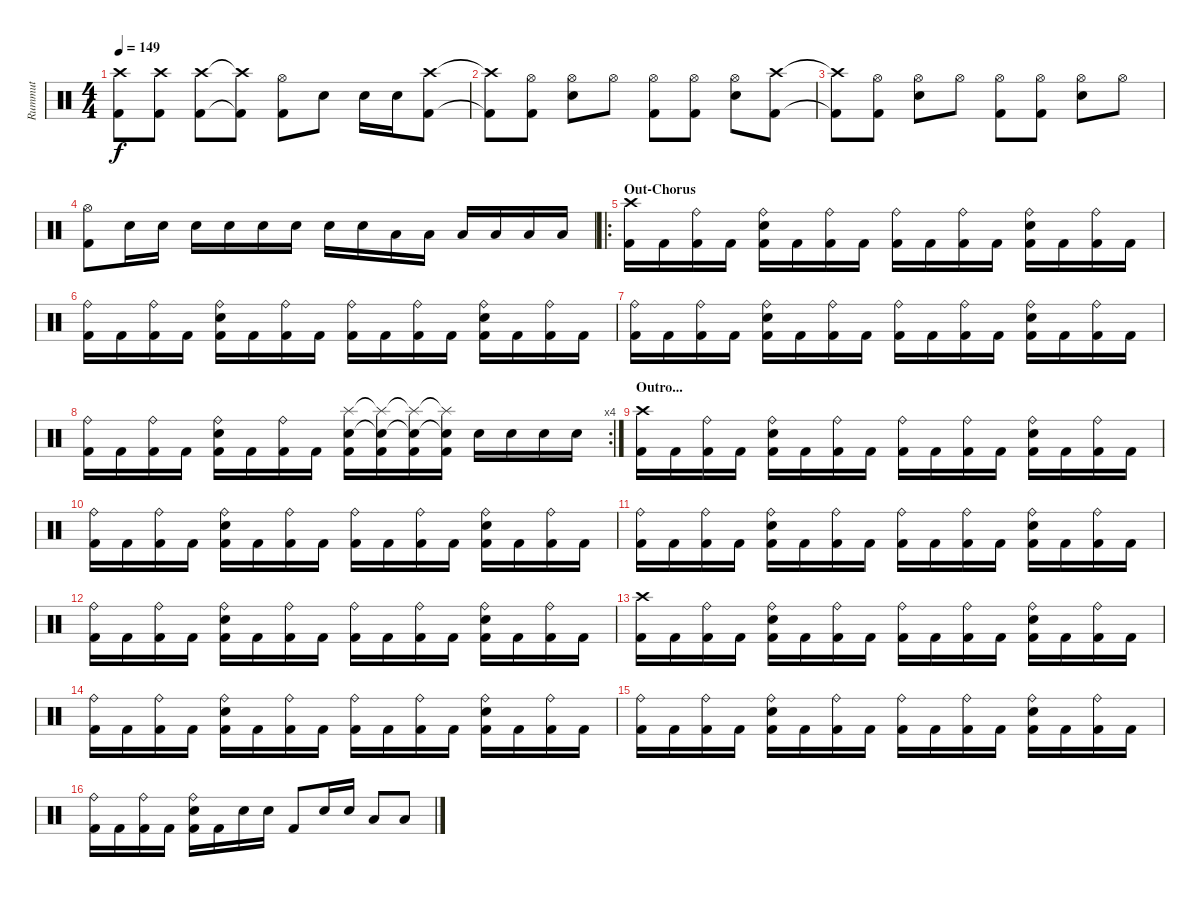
\track ("Rummut" "Rummut") {instrument percussion}
\staff {score}
\articulation defaults
\ts (4 4)
\tempo 149
\clef neutral
\ks c
("Crash high (hit)" "Kick (hit) 2").8{dy f} ("Crash high (hit)" "Kick (hit) 2").8 ("Crash high (hit)" "Kick (hit) 2").8 ("Crash high (hit)"{t} "Kick (hit) 2"{t}).8 ("Hi-Hat (open)" "Kick (hit) 2").8 "Electric Snare (hit)".8 "Electric Snare (hit)".16 "Electric Snare (hit)".16 ("Crash high (hit)" "Kick (hit) 2").8 |
("Crash high (hit)"{t} "Kick (hit) 2"{t}).8 ("Hi-Hat (open)" "Kick (hit) 2").8 ("Hi-Hat (open)" "Electric Snare (hit)").8 "Hi-Hat (open)".8 ("Hi-Hat (open)" "Kick (hit) 2").8 ("Hi-Hat (open)" "Kick (hit) 2").8 ("Hi-Hat (open)" "Electric Snare (hit)").8 ("Crash high (hit)" "Kick (hit) 2").8 |
("Crash high (hit)"{t} "Kick (hit) 2"{t}).8 ("Hi-Hat (open)" "Kick (hit) 2").8 ("Hi-Hat (open)" "Electric Snare (hit)").8 "Hi-Hat (open)".8 ("Hi-Hat (open)" "Kick (hit) 2").8 ("Hi-Hat (open)" "Kick (hit) 2").8 ("Hi-Hat (open)" "Electric Snare (hit)").8 "Hi-Hat (open)".8 |
("Hi-Hat (open)" "Kick (hit) 2").8 "Electric Snare (hit)".16 "Electric Snare (hit)".16 "Electric Snare (hit)".16 "Electric Snare (hit)".16 "Electric Snare (hit)".16 "Electric Snare (hit)".16 "Electric Snare (hit)".16 "Electric Snare (hit)".16 "Low Tom (hit)".16 "Low Tom (hit)".16 "Low Floor Tom (hit)".16 "Low Floor Tom (hit)".16 "Low Floor Tom (hit)".16 "Low Floor Tom (hit)".16 |
\ro
\section ("" "Out-Chorus")
("Crash high (hit)" "Kick (hit) 2").16 "Kick (hit) 2".16 ("Ride (bell)" "Kick (hit) 2").16 "Kick (hit) 2".16 ("Ride (bell)" "Electric Snare (hit)" "Kick (hit) 2").16 "Kick (hit) 2".16 ("Ride (bell)" "Kick (hit) 2").16 "Kick (hit) 2".16 ("Ride (bell)" "Kick (hit) 2").16 "Kick (hit) 2".16 ("Ride (bell)" "Kick (hit) 2").16 "Kick (hit) 2".16 ("Ride (bell)" "Electric Snare (hit)" "Kick (hit) 2").16 "Kick (hit) 2".16 ("Ride (bell)" "Kick (hit) 2").16 "Kick (hit) 2".16 |
("Ride (bell)" "Kick (hit) 2").16 "Kick (hit) 2".16 ("Ride (bell)" "Kick (hit) 2").16 "Kick (hit) 2".16 ("Ride (bell)" "Electric Snare (hit)" "Kick (hit) 2").16 "Kick (hit) 2".16 ("Ride (bell)" "Kick (hit) 2").16 "Kick (hit) 2".16 ("Ride (bell)" "Kick (hit) 2").16 "Kick (hit) 2".16 ("Ride (bell)" "Kick (hit) 2").16 "Kick (hit) 2".16 ("Ride (bell)" "Electric Snare (hit)" "Kick (hit) 2").16 "Kick (hit) 2".16 ("Ride (bell)" "Kick (hit) 2").16 "Kick (hit) 2".16 |
("Ride (bell)" "Kick (hit) 2").16 "Kick (hit) 2".16 ("Ride (bell)" "Kick (hit) 2").16 "Kick (hit) 2".16 ("Ride (bell)" "Electric Snare (hit)" "Kick (hit) 2").16 "Kick (hit) 2".16 ("Ride (bell)" "Kick (hit) 2").16 "Kick (hit) 2".16 ("Ride (bell)" "Kick (hit) 2").16 "Kick (hit) 2".16 ("Ride (bell)" "Kick (hit) 2").16 "Kick (hit) 2".16 ("Ride (bell)" "Electric Snare (hit)" "Kick (hit) 2").16 "Kick (hit) 2".16 ("Ride (bell)" "Kick (hit) 2").16 "Kick (hit) 2".16 |
\rc 4
("Ride (bell)" "Kick (hit) 2").16 "Kick (hit) 2".16 ("Ride (bell)" "Kick (hit) 2").16 "Kick (hit) 2".16 ("Ride (bell)" "Electric Snare (hit)" "Kick (hit) 2").16 "Kick (hit) 2".16 ("Ride (bell)" "Kick (hit) 2").16 "Kick (hit) 2".16 ("Splash (hit)" "Electric Snare (hit)" "Kick (hit) 2").16 ("Splash (hit)"{t} "Electric Snare (hit)"{t} "Kick (hit) 2").16 ("Splash (hit)"{t} "Electric Snare (hit)"{t} "Kick (hit) 2").16 ("Splash (hit)"{t} "Electric Snare (hit)"{t} "Kick (hit) 2").16 "Electric Snare (hit)".16 "Electric Snare (hit)".16 "Electric Snare (hit)".16 "Electric Snare (hit)".16 |
\section ("" "Outro...")
("Crash high (hit)" "Kick (hit) 2").16 "Kick (hit) 2".16 ("Ride (bell)" "Kick (hit) 2").16 "Kick (hit) 2".16 ("Ride (bell)" "Electric Snare (hit)" "Kick (hit) 2").16 "Kick (hit) 2".16 ("Ride (bell)" "Kick (hit) 2").16 "Kick (hit) 2".16 ("Ride (bell)" "Kick (hit) 2").16 "Kick (hit) 2".16 ("Ride (bell)" "Kick (hit) 2").16 "Kick (hit) 2".16 ("Ride (bell)" "Electric Snare (hit)" "Kick (hit) 2").16 "Kick (hit) 2".16 ("Ride (bell)" "Kick (hit) 2").16 "Kick (hit) 2".16 |
("Ride (bell)" "Kick (hit) 2").16 "Kick (hit) 2".16 ("Ride (bell)" "Kick (hit) 2").16 "Kick (hit) 2".16 ("Ride (bell)" "Electric Snare (hit)" "Kick (hit) 2").16 "Kick (hit) 2".16 ("Ride (bell)" "Kick (hit) 2").16 "Kick (hit) 2".16 ("Ride (bell)" "Kick (hit) 2").16 "Kick (hit) 2".16 ("Ride (bell)" "Kick (hit) 2").16 "Kick (hit) 2".16 ("Ride (bell)" "Electric Snare (hit)" "Kick (hit) 2").16 "Kick (hit) 2".16 ("Ride (bell)" "Kick (hit) 2").16 "Kick (hit) 2".16 |
("Ride (bell)" "Kick (hit) 2").16 "Kick (hit) 2".16 ("Ride (bell)" "Kick (hit) 2").16 "Kick (hit) 2".16 ("Ride (bell)" "Electric Snare (hit)" "Kick (hit) 2").16 "Kick (hit) 2".16 ("Ride (bell)" "Kick (hit) 2").16 "Kick (hit) 2".16 ("Ride (bell)" "Kick (hit) 2").16 "Kick (hit) 2".16 ("Ride (bell)" "Kick (hit) 2").16 "Kick (hit) 2".16 ("Ride (bell)" "Electric Snare (hit)" "Kick (hit) 2").16 "Kick (hit) 2".16 ("Ride (bell)" "Kick (hit) 2").16 "Kick (hit) 2".16 |
("Ride (bell)" "Kick (hit) 2").16 "Kick (hit) 2".16 ("Ride (bell)" "Kick (hit) 2").16 "Kick (hit) 2".16 ("Ride (bell)" "Electric Snare (hit)" "Kick (hit) 2").16 "Kick (hit) 2".16 ("Ride (bell)" "Kick (hit) 2").16 "Kick (hit) 2".16 ("Ride (bell)" "Kick (hit) 2").16 "Kick (hit) 2".16 ("Ride (bell)" "Kick (hit) 2").16 "Kick (hit) 2".16 ("Ride (bell)" "Electric Snare (hit)" "Kick (hit) 2").16 "Kick (hit) 2".16 ("Ride (bell)" "Kick (hit) 2").16 "Kick (hit) 2".16 |
("Crash high (hit)" "Kick (hit) 2").16 "Kick (hit) 2".16 ("Ride (bell)" "Kick (hit) 2").16 "Kick (hit) 2".16 ("Ride (bell)" "Electric Snare (hit)" "Kick (hit) 2").16 "Kick (hit) 2".16 ("Ride (bell)" "Kick (hit) 2").16 "Kick (hit) 2".16 ("Ride (bell)" "Kick (hit) 2").16 "Kick (hit) 2".16 ("Ride (bell)" "Kick (hit) 2").16 "Kick (hit) 2".16 ("Ride (bell)" "Electric Snare (hit)" "Kick (hit) 2").16 "Kick (hit) 2".16 ("Ride (bell)" "Kick (hit) 2").16 "Kick (hit) 2".16 |
("Ride (bell)" "Kick (hit) 2").16 "Kick (hit) 2".16 ("Ride (bell)" "Kick (hit) 2").16 "Kick (hit) 2".16 ("Ride (bell)" "Electric Snare (hit)" "Kick (hit) 2").16 "Kick (hit) 2".16 ("Ride (bell)" "Kick (hit) 2").16 "Kick (hit) 2".16 ("Ride (bell)" "Kick (hit) 2").16 "Kick (hit) 2".16 ("Ride (bell)" "Kick (hit) 2").16 "Kick (hit) 2".16 ("Ride (bell)" "Electric Snare (hit)" "Kick (hit) 2").16 "Kick (hit) 2".16 ("Ride (bell)" "Kick (hit) 2").16 "Kick (hit) 2".16 |
("Ride (bell)" "Kick (hit) 2").16 "Kick (hit) 2".16 ("Ride (bell)" "Kick (hit) 2").16 "Kick (hit) 2".16 ("Ride (bell)" "Electric Snare (hit)" "Kick (hit) 2").16 "Kick (hit) 2".16 ("Ride (bell)" "Kick (hit) 2").16 "Kick (hit) 2".16 ("Ride (bell)" "Kick (hit) 2").16 "Kick (hit) 2".16 ("Ride (bell)" "Kick (hit) 2").16 "Kick (hit) 2".16 ("Ride (bell)" "Electric Snare (hit)" "Kick (hit) 2").16 "Kick (hit) 2".16 ("Ride (bell)" "Kick (hit) 2").16 "Kick (hit) 2".16 |
("Ride (bell)" "Kick (hit) 2").16 "Kick (hit) 2".16 ("Ride (bell)" "Kick (hit) 2").16 "Kick (hit) 2".16 ("Ride (bell)" "Electric Snare (hit)" "Kick (hit) 2").16 "Kick (hit) 2".16 "Electric Snare (hit)".16 "Electric Snare (hit)".16 "Kick (hit) 2".8 "Electric Snare (hit)".16 "Electric Snare (hit)".16 "Low Tom (hit)".8 "Low Floor Tom (hit)".8
